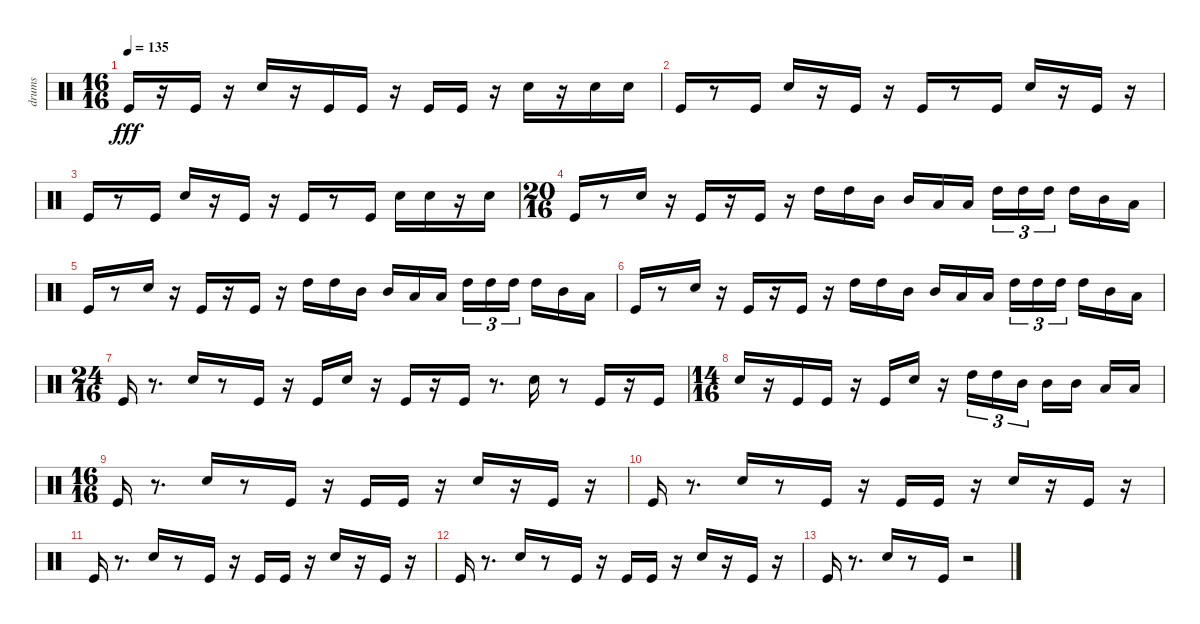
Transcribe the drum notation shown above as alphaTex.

\track ("drums" "drums") {instrument percussion}
\staff {score}
\articulation defaults
\ts (16 16)
\tempo 135
\clef neutral
\ks c "Kick (hit)".16{dy fff}
r.16 "Kick (hit)".16 r.16 "Snare (hit) 2".16 r.16 "Kick (hit)".16 "Kick (hit)".16 r.16 "Kick (hit)".16 "Kick (hit)".16 r.16 "Snare (hit) 2".16 r.16 "Snare (hit) 2".16 "Snare (hit) 2".16 |
"Kick (hit)".16 r.8 "Kick (hit)".16 "Snare (hit) 2".16 r.16 "Kick (hit)".16 r.16 "Kick (hit)".16 r.8 "Kick (hit)".16 "Snare (hit) 2".16 r.16 "Kick (hit)".16 r.16 |
"Kick (hit)".16 r.8 "Kick (hit)".16 "Snare (hit) 2".16 r.16 "Kick (hit)".16 r.16 "Kick (hit)".16 r.8 "Kick (hit)".16 "Snare (hit) 2".16 "Snare (hit) 2".16 r.16 "Snare (hit) 2".16 |
\ts (20 16)
"Kick (hit)".16 r.8 "Snare (hit) 2".16 r.16 "Kick (hit)".16 r.16 "Kick (hit)".16 r.16 "High Tom (hit)".16 "High Tom (hit)".16 "Mid Tom (hit)".16 "Mid Tom (hit)".16 "Low Tom (hit)".16 "Low Tom (hit)".16 "High Tom (hit)".16{tu (3 2)} "High Tom (hit)".16{tu (3 2)} "High Tom (hit)".16{tu (3 2)} "High Tom (hit)".16 "Mid Tom (hit)".16 "Low Tom (hit)".16 |
"Kick (hit)".16 r.8 "Snare (hit) 2".16 r.16 "Kick (hit)".16 r.16 "Kick (hit)".16 r.16 "High Tom (hit)".16 "High Tom (hit)".16 "Mid Tom (hit)".16 "Mid Tom (hit)".16 "Low Tom (hit)".16 "Low Tom (hit)".16 "High Tom (hit)".16{tu (3 2)} "High Tom (hit)".16{tu (3 2)} "High Tom (hit)".16{tu (3 2)} "High Tom (hit)".16 "Mid Tom (hit)".16 "Low Tom (hit)".16 |
"Kick (hit)".16 r.8 "Snare (hit) 2".16 r.16 "Kick (hit)".16 r.16 "Kick (hit)".16 r.16 "High Tom (hit)".16 "High Tom (hit)".16 "Mid Tom (hit)".16 "Mid Tom (hit)".16 "Low Tom (hit)".16 "Low Tom (hit)".16 "High Tom (hit)".16{tu (3 2)} "High Tom (hit)".16{tu (3 2)} "High Tom (hit)".16{tu (3 2)} "High Tom (hit)".16 "Mid Tom (hit)".16 "Low Tom (hit)".16 |
\ts (24 16)
"Kick (hit)".16 r.8{d} "Snare (hit) 2".16 r.8 "Kick (hit)".16 r.16 "Kick (hit)".16 "Snare (hit) 2".16 r.16 "Kick (hit)".16 r.16 "Kick (hit)".16 r.8{d} "Snare (hit) 2".16 r.8 "Kick (hit)".16 r.16 "Kick (hit)".16 |
\ts (14 16)
"Snare (hit) 2".16 r.16 "Kick (hit)".16 "Kick (hit)".16 r.16 "Kick (hit)".16 "Snare (hit) 2".16 r.16 "High Tom (hit)".16{tu (3 2)} "High Tom (hit)".16{tu (3 2)} "Mid Tom (hit)".16{tu (3 2)} "Mid Tom (hit)".16 "Mid Tom (hit)".16 "Low Tom (hit)".16 "Low Tom (hit)".16 |
\ts (16 16)
"Kick (hit)".16{volume 16} r.8{d} "Snare (hit) 2".16{volume 15} r.8 "Kick (hit)".16{volume 14} r.16 "Kick (hit)".16{volume 14} "Kick (hit)".16{volume 13} r.16 "Snare (hit) 2".16{volume 13} r.16 "Kick (hit)".16{volume 12} r.16 |
"Kick (hit)".16{volume 12} r.8{d} "Snare (hit) 2".16{volume 11} r.8 "Kick (hit)".16{volume 11} r.16 "Kick (hit)".16{volume 10} "Kick (hit)".16{volume 10} r.16 "Snare (hit) 2".16{volume 9} r.16 "Kick (hit)".16{volume 9} r.16 |
"Kick (hit)".16{volume 8} r.8{d} "Snare (hit) 2".16{volume 8} r.8 "Kick (hit)".16{volume 7} r.16 "Kick (hit)".16{volume 7} "Kick (hit)".16{volume 6} r.16 "Snare (hit) 2".16{volume 6} r.16 "Kick (hit)".16{volume 6} r.16 |
"Kick (hit)".16{volume 5} r.8{d} "Snare (hit) 2".16{volume 4} r.8 "Kick (hit)".16{volume 4} r.16 "Kick (hit)".16{volume 3} "Kick (hit)".16{volume 3} r.16 "Snare (hit) 2".16{volume 2} r.16 "Kick (hit)".16{volume 2} r.16 |
"Kick (hit)".16{volume 2} r.8{d} "Snare (hit) 2".16{volume 1} r.8 "Kick (hit)".16{volume 0} r.2
